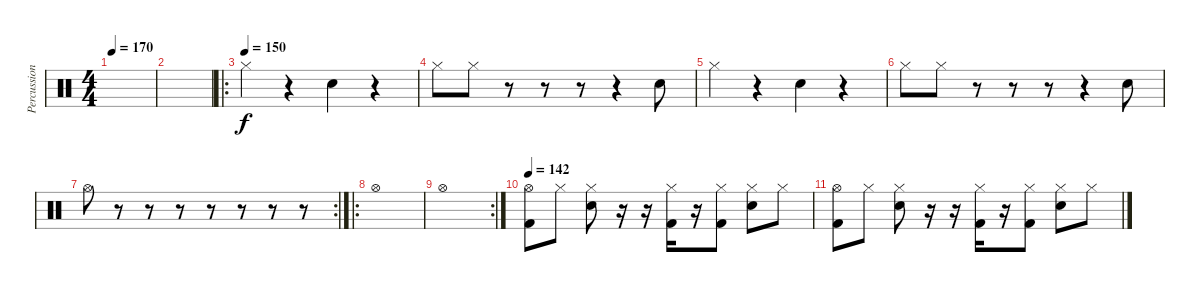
\track ("Percussions" "Percussion") {instrument percussion}
\staff {score}
\articulation defaults
\ts (4 4)
\tempo 170
\clef neutral
\ks c
|
|
\ro
\tempo (150)
"Hi-Hat (closed)".4 r.4 "Snare (hit) 2".4 r.4 |
"Hi-Hat (closed)".8 "Hi-Hat (closed)".8 r.8 r.8 r.8 r.4 "Snare (hit) 2".8 |
"Hi-Hat (closed)".4 r.4 "Snare (hit) 2".4 r.4 |
"Hi-Hat (closed)".8 "Hi-Hat (closed)".8 r.8 r.8 r.8 r.4 "Snare (hit) 2".8 |
\rc 2 "Hi-Hat (open)".8
r.8 r.8 r.8 r.8 r.8 r.8 r.8 |
\ro "Hi-Hat (open)".1
|
\rc 2 "Hi-Hat (open)".1
|
\tempo 110
\tempo 142
("Hi-Hat (open)" "Kick (hit) 2").8 "Hi-Hat (closed)".8 ("Hi-Hat (closed)" "Snare (hit) 2").8 r.16 r.16 ("Hi-Hat (closed)" "Kick (hit) 2").16 r.16 ("Hi-Hat (closed)" "Kick (hit) 2").8 ("Hi-Hat (closed)" "Snare (hit) 2").8 "Hi-Hat (closed)".8 |
("Hi-Hat (open)" "Kick (hit) 2").8 "Hi-Hat (closed)".8 ("Hi-Hat (closed)" "Snare (hit) 2").8 r.16 r.16 ("Hi-Hat (closed)" "Kick (hit) 2").16 r.16 ("Hi-Hat (closed)" "Kick (hit) 2").8 ("Hi-Hat (closed)" "Snare (hit) 2").8 "Hi-Hat (closed)".8
